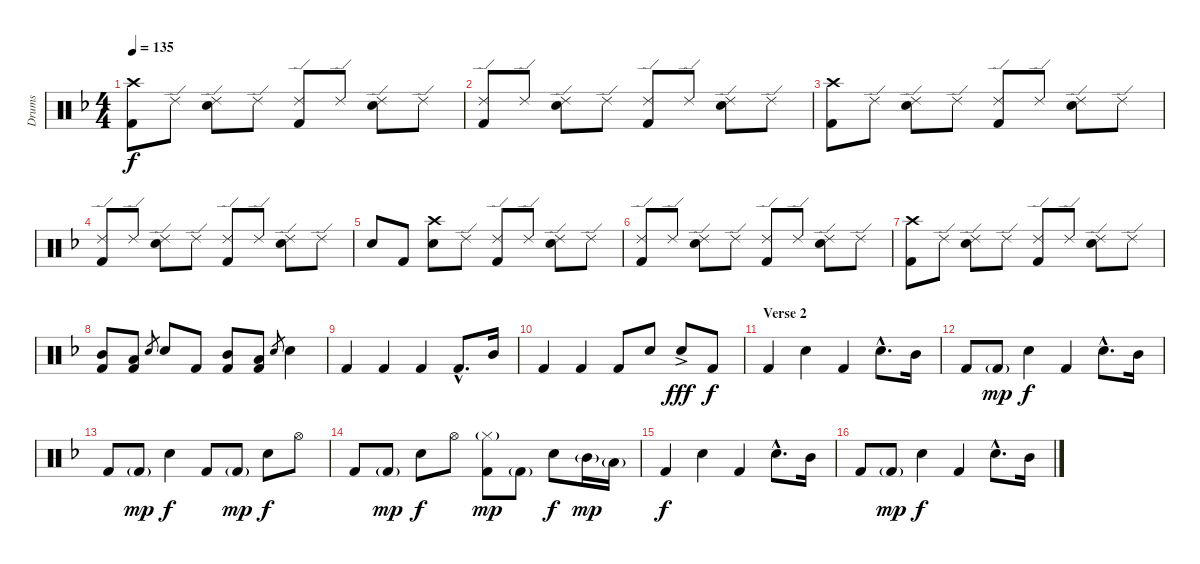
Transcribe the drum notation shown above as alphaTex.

\track ("Drums" "Drums") {instrument percussion}
\staff {score}
\articulation defaults
\ts (4 4)
\tempo 135
\clef neutral
\ks f
("Crash high (hit)" "Kick (hit) 2").8{dy f} "Ride (edge) 2".8 ("Ride (edge) 2" "Electric Snare (hit)").8 "Ride (edge) 2".8 ("Ride (edge) 2" "Kick (hit) 2").8 "Ride (edge) 2".8 ("Ride (edge) 2" "Electric Snare (hit)").8 "Ride (edge) 2".8 |
("Ride (edge) 2" "Kick (hit) 2").8 "Ride (edge) 2".8 ("Ride (edge) 2" "Electric Snare (hit)").8 "Ride (edge) 2".8 ("Ride (edge) 2" "Kick (hit) 2").8 "Ride (edge) 2".8 ("Ride (edge) 2" "Electric Snare (hit)").8 "Ride (edge) 2".8 |
("Crash high (hit)" "Kick (hit) 2").8 "Ride (edge) 2".8 ("Ride (edge) 2" "Electric Snare (hit)").8 "Ride (edge) 2".8 ("Ride (edge) 2" "Kick (hit) 2").8 "Ride (edge) 2".8 ("Ride (edge) 2" "Electric Snare (hit)").8 "Ride (edge) 2".8 |
("Ride (edge) 2" "Kick (hit) 2").8 "Ride (edge) 2".8 ("Ride (edge) 2" "Electric Snare (hit)").8 "Ride (edge) 2".8 ("Ride (edge) 2" "Kick (hit) 2").8 "Ride (edge) 2".8 ("Ride (edge) 2" "Electric Snare (hit)").8 "Ride (edge) 2".8 |
"Electric Snare (hit)".8 "Kick (hit) 2".8 ("Crash high (hit)" "Electric Snare (hit)").8 "Ride (edge) 2".8 ("Ride (edge) 2" "Kick (hit) 2").8 "Ride (edge) 2".8 ("Ride (edge) 2" "Electric Snare (hit)").8 "Ride (edge) 2".8 |
("Ride (edge) 2" "Kick (hit) 2").8 "Ride (edge) 2".8 ("Ride (edge) 2" "Electric Snare (hit)").8 "Ride (edge) 2".8 ("Ride (edge) 2" "Kick (hit) 2").8 "Ride (edge) 2".8 ("Ride (edge) 2" "Electric Snare (hit)").8 "Ride (edge) 2".8 |
("Crash high (hit)" "Kick (hit) 2").8 "Ride (edge) 2".8 ("Ride (edge) 2" "Electric Snare (hit)").8 "Ride (edge) 2".8 ("Ride (edge) 2" "Kick (hit) 2").8 "Ride (edge) 2".8 ("Ride (edge) 2" "Electric Snare (hit)").8 "Ride (edge) 2".8 |
("Mid Tom (hit)" "Kick (hit) 2").8 ("Low Tom (hit)" "Kick (hit) 2").8 "Snare (hit) 2".8{gr} "Electric Snare (hit)".8 "Kick (hit) 2".8 ("Mid Tom (hit)" "Kick (hit) 2").8 ("Low Tom (hit)" "Kick (hit) 2").8 "Snare (hit) 2".8{gr} "Electric Snare (hit)".4 |
"Kick (hit) 2".4 "Kick (hit) 2".4 "Kick (hit) 2".4 "Kick (hit) 2"{hac}.8{d} "Mid Tom (hit)".16 |
"Kick (hit) 2".4 "Kick (hit) 2".4 "Kick (hit) 2".8 "Electric Snare (hit)".8 "Electric Snare (hit)"{ac}.8{dy fff} "Kick (hit) 2".8{dy f} |
\section ("" "Verse 2")
"Kick (hit) 2".4 "Electric Snare (hit)".4 "Kick (hit) 2".4 "Electric Snare (hit)"{hac}.8{d} "Mid Tom (hit)".16 |
"Kick (hit) 2".8 "Kick (hit) 2"{g}.8{dy mp} "Electric Snare (hit)".4{dy f} "Kick (hit) 2".4 "Electric Snare (hit)"{hac}.8{d} "Mid Tom (hit)".16 |
"Kick (hit) 2".8 "Kick (hit) 2"{g}.8{dy mp} "Electric Snare (hit)".4{dy f} "Kick (hit) 2".8 "Kick (hit) 2"{g}.8{dy mp} "Electric Snare (hit)".8{dy f} "Hi-Hat (open)".8 |
"Kick (hit) 2".8 "Kick (hit) 2"{g}.8{dy mp} "Electric Snare (hit)".8{dy f} "Hi-Hat (open)".8 ("Hi-Hat (closed)"{g} "Kick (hit) 2").8{dy mp} "Kick (hit) 2"{g}.8 "Electric Snare (hit)".8{dy f} "Mid Tom (hit)"{g}.16{dy mp} "Low Tom (hit)"{g}.16 |
"Kick (hit) 2".4{dy f} "Electric Snare (hit)".4 "Kick (hit) 2".4 "Electric Snare (hit)"{hac}.8{d} "Mid Tom (hit)".16 |
"Kick (hit) 2".8 "Kick (hit) 2"{g}.8{dy mp} "Electric Snare (hit)".4{dy f} "Kick (hit) 2".4 "Electric Snare (hit)"{hac}.8{d} "Mid Tom (hit)".16
